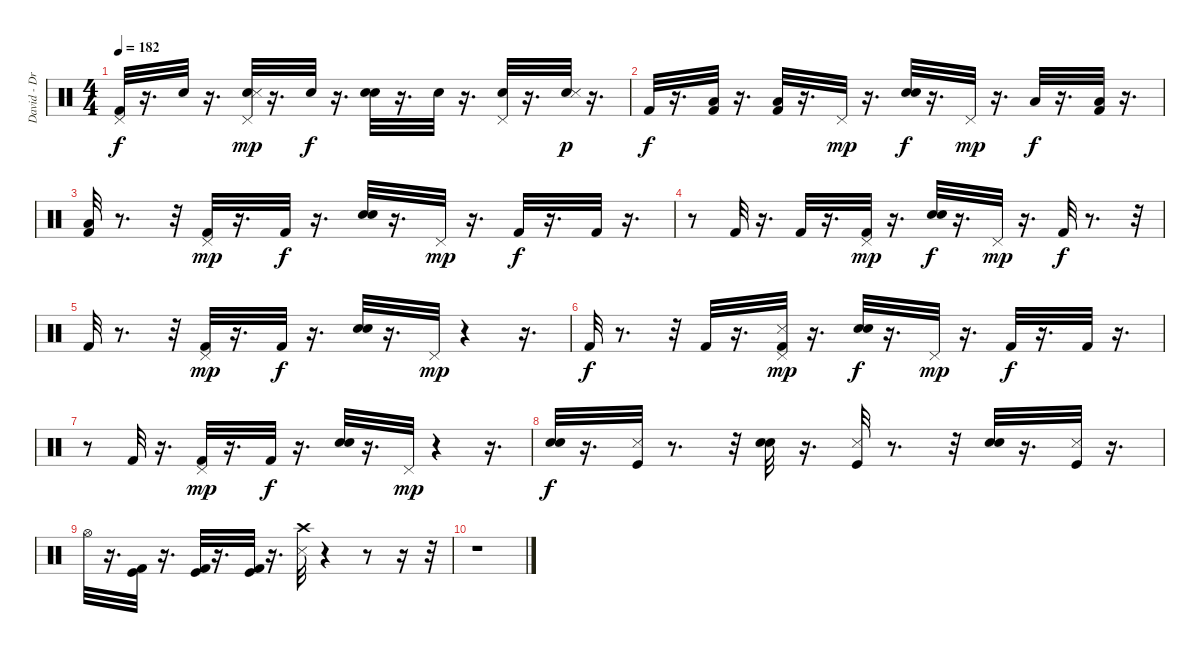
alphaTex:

\track ("David - Drums" "David - Dr") {instrument percussion}
\staff {score}
\articulation defaults
\ts (4 4)
\tempo 182
\clef neutral
\ks c
("Pedal Hi-Hat (hit)" "Kick (hit) 2").32{dy f} r.16{d} "Electric Snare (hit)".32 r.16{d} ("Electric Snare (hit)" "Pedal Hi-Hat (hit)" "Snare (side stick) 3").32{dy mp} r.16{d} "Electric Snare (hit)".32{dy f} r.16{d} ("Snare (hit) 2" "Electric Snare (hit)").32 r.16{d} "Electric Snare (hit)".32 r.16{d} ("Electric Snare (hit)" "Pedal Hi-Hat (hit)").32 r.16{d} ("Electric Snare (hit)" "Snare (side stick) 3").32{dy p} r.16{d} |
"Kick (hit) 2".32{dy f} r.16{d} ("Low Floor Tom (hit)" "Kick (hit) 2").32 r.16{d} ("Kick (hit) 2" "Low Floor Tom (hit)").32 r.16{d} "Pedal Hi-Hat (hit)".32{dy mp} r.16{d} ("Electric Snare (hit)" "Snare (hit) 2").32{dy f} r.16{d} "Pedal Hi-Hat (hit)".32{dy mp} r.16{d} "Low Floor Tom (hit)".32{dy f} r.16{d} ("Low Floor Tom (hit)" "Kick (hit) 2").32 r.16{d} |
("Low Tom (hit)" "Kick (hit) 2").32 r.8{d} r.32 ("Kick (hit) 2" "Pedal Hi-Hat (hit)").32{dy mp} r.16{d} "Kick (hit) 2".32{dy f} r.16{d} ("Snare (hit) 2" "Electric Snare (hit)").32 r.16{d} "Pedal Hi-Hat (hit)".32{dy mp} r.16{d} "Kick (hit) 2".32{dy f} r.16{d} "Kick (hit) 2".32 r.16{d} |
r.8 "Kick (hit) 2".32 r.16{d} "Kick (hit) 2".32 r.16{d} ("Kick (hit) 2" "Pedal Hi-Hat (hit)").32{dy mp} r.16{d} ("Electric Snare (hit)" "Snare (hit) 2").32{dy f} r.16{d} "Pedal Hi-Hat (hit)".32{dy mp} r.16{d} "Kick (hit) 2".32{dy f} r.8{d} r.32 |
"Kick (hit) 2".32 r.8{d} r.32 ("Kick (hit) 2" "Pedal Hi-Hat (hit)").32{dy mp} r.16{d} "Kick (hit) 2".32{dy f} r.16{d} ("Snare (hit) 2" "Electric Snare (hit)").32 r.16{d} "Pedal Hi-Hat (hit)".32{dy mp} r.4 r.16{d} |
"Kick (hit) 2".32{dy f} r.8{d} r.32 "Kick (hit) 2".32 r.16{d} ("Snare (side stick) 3" "Pedal Hi-Hat (hit)" "Kick (hit) 2").32{dy mp} r.16{d} ("Electric Snare (hit)" "Snare (hit) 2").32{dy f} r.16{d} "Pedal Hi-Hat (hit)".32{dy mp} r.16{d} "Kick (hit) 2".32{dy f} r.16{d} "Kick (hit) 2".32 r.16{d} |
r.8 "Kick (hit) 2".32 r.16{d} ("Pedal Hi-Hat (hit)" "Kick (hit) 2").32{dy mp} r.16{d} "Kick (hit) 2".32{dy f} r.16{d} ("Snare (hit) 2" "Electric Snare (hit)").32 r.16{d} "Pedal Hi-Hat (hit)".32{dy mp} r.4 r.16{d} |
("Snare (hit) 2" "Electric Snare (hit)").32{dy f} r.16{d} ("Snare (side stick) 3" "Kick (hit)").32 r.8{d} r.32 ("Snare (hit) 2" "Electric Snare (hit)").32 r.16{d} ("Snare (side stick) 3" "Kick (hit)").32 r.8{d} r.32 ("Snare (hit) 2" "Electric Snare (hit)").32 r.16{d} ("Snare (side stick) 3" "Kick (hit)").32 r.16{d} |
"Hi-Hat (open)".32 r.16{d} ("Kick (hit)" "Kick (hit) 2").32 r.16{d} ("Kick (hit)" "Kick (hit) 2").32 r.16{d} ("Kick (hit)" "Kick (hit) 2").32 r.16{d} ("Snare (side stick) 3" "Crash high (hit)").32 r.4 r.8 r.16 r.32 |
r.1
